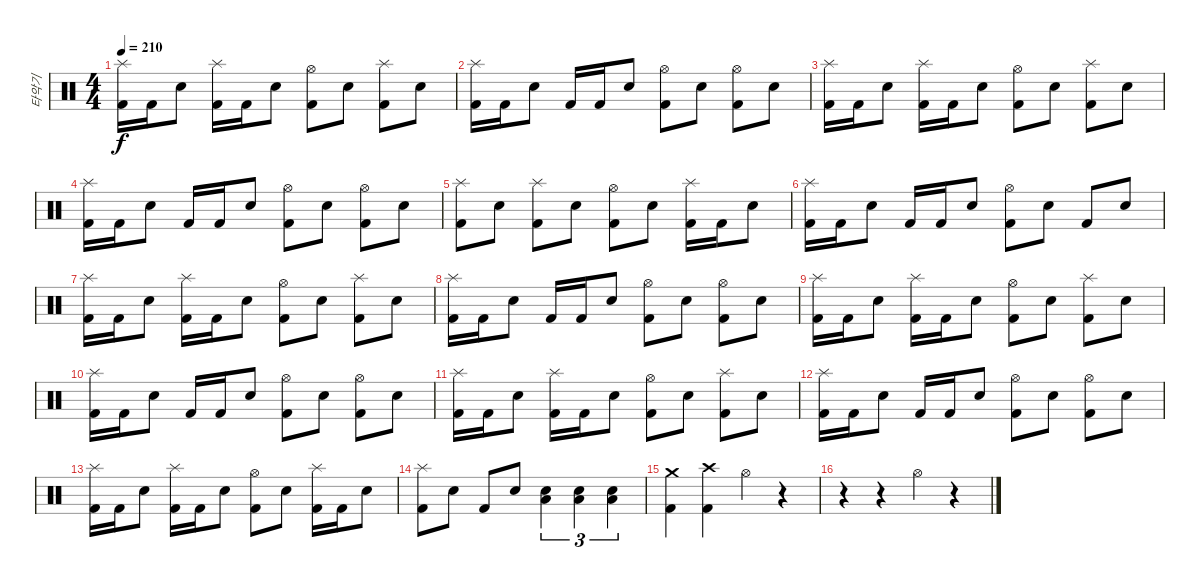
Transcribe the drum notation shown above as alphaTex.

\track ("타악기" "타악기") {instrument percussion}
\staff {score}
\articulation defaults
\ts (4 4)
\tempo 210
\clef neutral
\ks c
("Splash (hit)" "Kick (hit) 2").16{dy f} "Kick (hit) 2".16 "Snare (hit) 2".8 ("Splash (hit)" "Kick (hit) 2").16 "Kick (hit) 2".16 "Snare (hit) 2".8 ("Hi-Hat (open)" "Kick (hit) 2").8 "Snare (hit) 2".8 ("Splash (hit)" "Kick (hit) 2").8 "Snare (hit) 2".8 |
("Splash (hit)" "Kick (hit) 2").16 "Kick (hit) 2".16 "Snare (hit) 2".8 "Kick (hit) 2".16 "Kick (hit) 2".16 "Snare (hit) 2".8 ("Hi-Hat (open)" "Kick (hit) 2").8 "Snare (hit) 2".8 ("Hi-Hat (open)" "Kick (hit) 2").8 "Snare (hit) 2".8 |
("Splash (hit)" "Kick (hit) 2").16 "Kick (hit) 2".16 "Snare (hit) 2".8 ("Splash (hit)" "Kick (hit) 2").16 "Kick (hit) 2".16 "Snare (hit) 2".8 ("Hi-Hat (open)" "Kick (hit) 2").8 "Snare (hit) 2".8 ("Splash (hit)" "Kick (hit) 2").8 "Snare (hit) 2".8 |
("Splash (hit)" "Kick (hit) 2").16 "Kick (hit) 2".16 "Snare (hit) 2".8 "Kick (hit) 2".16 "Kick (hit) 2".16 "Snare (hit) 2".8 ("Hi-Hat (open)" "Kick (hit) 2").8 "Snare (hit) 2".8 ("Hi-Hat (open)" "Kick (hit) 2").8 "Snare (hit) 2".8 |
("Splash (hit)" "Kick (hit) 2").8 "Snare (hit) 2".8 ("Splash (hit)" "Kick (hit) 2").8 "Snare (hit) 2".8 ("Hi-Hat (open)" "Kick (hit) 2").8 "Snare (hit) 2".8 ("Splash (hit)" "Kick (hit) 2").16 "Kick (hit) 2".16 "Snare (hit) 2".8 |
("Splash (hit)" "Kick (hit) 2").16 "Kick (hit) 2".16 "Snare (hit) 2".8 "Kick (hit) 2".16 "Kick (hit) 2".16 "Snare (hit) 2".8 ("Hi-Hat (open)" "Kick (hit) 2").8 "Snare (hit) 2".8 "Kick (hit) 2".8 "Snare (hit) 2".8 |
("Splash (hit)" "Kick (hit) 2").16 "Kick (hit) 2".16 "Snare (hit) 2".8 ("Splash (hit)" "Kick (hit) 2").16 "Kick (hit) 2".16 "Snare (hit) 2".8 ("Hi-Hat (open)" "Kick (hit) 2").8 "Snare (hit) 2".8 ("Splash (hit)" "Kick (hit) 2").8 "Snare (hit) 2".8 |
("Splash (hit)" "Kick (hit) 2").16 "Kick (hit) 2".16 "Snare (hit) 2".8 "Kick (hit) 2".16 "Kick (hit) 2".16 "Snare (hit) 2".8 ("Hi-Hat (open)" "Kick (hit) 2").8 "Snare (hit) 2".8 ("Hi-Hat (open)" "Kick (hit) 2").8 "Snare (hit) 2".8 |
("Splash (hit)" "Kick (hit) 2").16 "Kick (hit) 2".16 "Snare (hit) 2".8 ("Splash (hit)" "Kick (hit) 2").16 "Kick (hit) 2".16 "Snare (hit) 2".8 ("Hi-Hat (open)" "Kick (hit) 2").8 "Snare (hit) 2".8 ("Splash (hit)" "Kick (hit) 2").8 "Snare (hit) 2".8 |
("Splash (hit)" "Kick (hit) 2").16 "Kick (hit) 2".16 "Snare (hit) 2".8 "Kick (hit) 2".16 "Kick (hit) 2".16 "Snare (hit) 2".8 ("Hi-Hat (open)" "Kick (hit) 2").8 "Snare (hit) 2".8 ("Hi-Hat (open)" "Kick (hit) 2").8 "Snare (hit) 2".8 |
("Splash (hit)" "Kick (hit) 2").16 "Kick (hit) 2".16 "Snare (hit) 2".8 ("Splash (hit)" "Kick (hit) 2").16 "Kick (hit) 2".16 "Snare (hit) 2".8 ("Hi-Hat (open)" "Kick (hit) 2").8 "Snare (hit) 2".8 ("Splash (hit)" "Kick (hit) 2").8 "Snare (hit) 2".8 |
("Splash (hit)" "Kick (hit) 2").16 "Kick (hit) 2".16 "Snare (hit) 2".8 "Kick (hit) 2".16 "Kick (hit) 2".16 "Snare (hit) 2".8 ("Hi-Hat (open)" "Kick (hit) 2").8 "Snare (hit) 2".8 ("Hi-Hat (open)" "Kick (hit) 2").8 "Snare (hit) 2".8 |
("Splash (hit)" "Kick (hit) 2").16 "Kick (hit) 2".16 "Snare (hit) 2".8 ("Splash (hit)" "Kick (hit) 2").16 "Kick (hit) 2".16 "Snare (hit) 2".8 ("Hi-Hat (open)" "Kick (hit) 2").8 "Snare (hit) 2".8 ("Splash (hit)" "Kick (hit) 2").16 "Kick (hit) 2".16 "Snare (hit) 2".8 |
("Splash (hit)" "Kick (hit) 2").8 "Snare (hit) 2".8 "Kick (hit) 2".8 "Snare (hit) 2".8 ("Low Tom (hit)" "Snare (hit) 2").4{tu (3 2)} ("Low Tom (hit)" "Snare (hit) 2").4{tu (3 2)} ("Low Tom (hit)" "Snare (hit) 2").4{tu (3 2)} |
("Crash medium (hit)" "Kick (hit) 2").4 ("Crash high (hit)" "Kick (hit) 2").4 "Hi-Hat (open)".4 r.4 |
r.4 r.4 "Hi-Hat (open)".4 r.4
